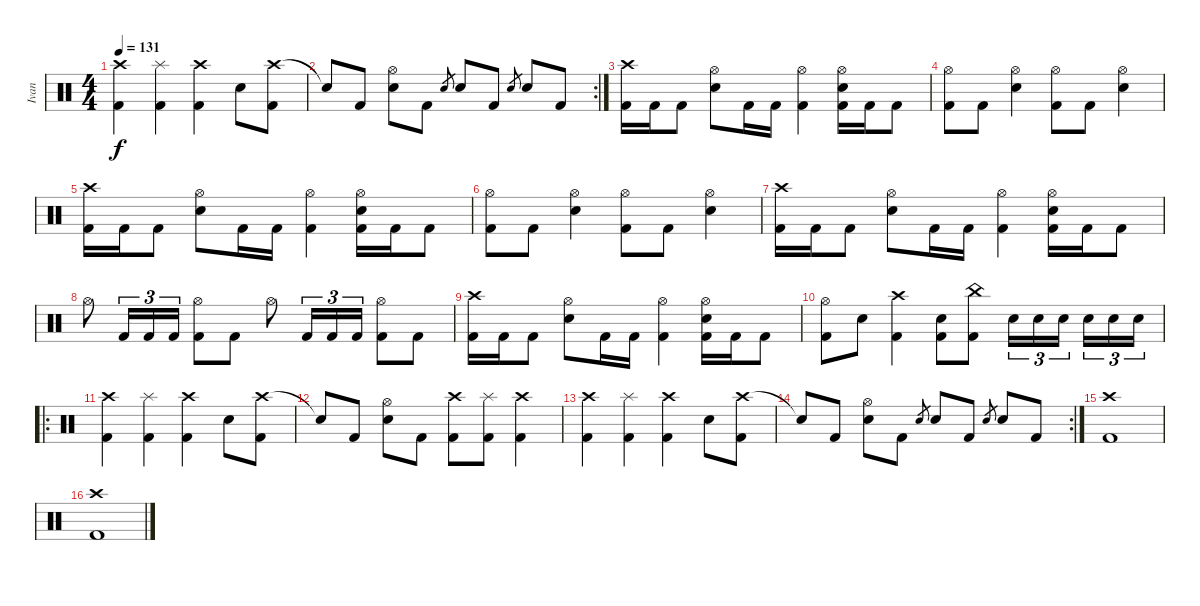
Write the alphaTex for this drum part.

\track ("Ivan" "Ivan") {instrument percussion}
\staff {score}
\articulation defaults
\ts (4 4)
\tempo 131
\clef neutral
\ks c
("Crash high (hit)" "Kick (hit) 2").4{dy f} ("Splash (hit)" "Kick (hit) 2").4 ("Crash high (hit)" "Kick (hit) 2").4 "Electric Snare (hit)".8 ("Crash high (hit)" "Kick (hit) 2").8 |
\rc 2 "Snare (hit)"{t}.8 "Kick (hit) 2".8
("Hi-Hat (open)" "Electric Snare (hit)").8 "Kick (hit) 2".8 "Electric Snare (hit)".8{gr} "Electric Snare (hit)".8 "Kick (hit) 2".8 "Electric Snare (hit)".8{gr} "Electric Snare (hit)".8 "Kick (hit) 2".8 |
("Crash high (hit)" "Kick (hit) 2").16 "Kick (hit) 2".16 "Kick (hit) 2".8 ("Hi-Hat (open)" "Electric Snare (hit)").8 "Kick (hit) 2".16 "Kick (hit) 2".16 ("Hi-Hat (open)" "Kick (hit) 2").4 ("Hi-Hat (open)" "Electric Snare (hit)" "Kick (hit) 2").16 "Kick (hit) 2".16 "Kick (hit) 2".8 |
("Hi-Hat (open)" "Kick (hit) 2").8 "Kick (hit) 2".8 ("Hi-Hat (open)" "Electric Snare (hit)").4 ("Hi-Hat (open)" "Kick (hit) 2").8 "Kick (hit) 2".8 ("Hi-Hat (open)" "Electric Snare (hit)").4 |
("Crash high (hit)" "Kick (hit) 2").16 "Kick (hit) 2".16 "Kick (hit) 2".8 ("Hi-Hat (open)" "Electric Snare (hit)").8 "Kick (hit) 2".16 "Kick (hit) 2".16 ("Hi-Hat (open)" "Kick (hit) 2").4 ("Hi-Hat (open)" "Electric Snare (hit)" "Kick (hit) 2").16 "Kick (hit) 2".16 "Kick (hit) 2".8 |
("Hi-Hat (open)" "Kick (hit) 2").8 "Kick (hit) 2".8 ("Hi-Hat (open)" "Electric Snare (hit)").4 ("Hi-Hat (open)" "Kick (hit) 2").8 "Kick (hit) 2".8 ("Hi-Hat (open)" "Electric Snare (hit)").4 |
("Crash high (hit)" "Kick (hit) 2").16 "Kick (hit) 2".16 "Kick (hit) 2".8 ("Hi-Hat (open)" "Electric Snare (hit)").8 "Kick (hit) 2".16 "Kick (hit) 2".16 ("Hi-Hat (open)" "Kick (hit) 2").4 ("Hi-Hat (open)" "Electric Snare (hit)" "Kick (hit) 2").16 "Kick (hit) 2".16 "Kick (hit) 2".8 |
"Hi-Hat (open)".8 "Kick (hit) 2".16{tu (3 2)} "Kick (hit) 2".16{tu (3 2)} "Kick (hit) 2".16{tu (3 2)} ("Hi-Hat (open)" "Kick (hit) 2").8 "Kick (hit) 2".8 "Hi-Hat (open)".8 "Kick (hit) 2".16{tu (3 2)} "Kick (hit) 2".16{tu (3 2)} "Kick (hit) 2".16{tu (3 2)} ("Hi-Hat (open)" "Kick (hit) 2").8 "Kick (hit) 2".8 |
("Crash high (hit)" "Kick (hit) 2").16 "Kick (hit) 2".16 "Kick (hit) 2".8 ("Hi-Hat (open)" "Electric Snare (hit)").8 "Kick (hit) 2".16 "Kick (hit) 2".16 ("Hi-Hat (open)" "Kick (hit) 2").4 ("Hi-Hat (open)" "Electric Snare (hit)" "Kick (hit) 2").16 "Kick (hit) 2".16 "Kick (hit) 2".8 |
("Hi-Hat (open)" "Kick (hit) 2").8 "Electric Snare (hit)".8 ("Crash high (hit)" "Kick (hit) 2").4 ("Electric Snare (hit)" "Kick (hit) 2").8 ("China (hit)" "Kick (hit) 2").8 "Electric Snare (hit)".16{tu (3 2)} "Electric Snare (hit)".16{tu (3 2)} "Electric Snare (hit)".16{tu (3 2)} "Electric Snare (hit)".16{tu (3 2)} "Electric Snare (hit)".16{tu (3 2)} "Electric Snare (hit)".16{tu (3 2)} |
\ro
("Crash high (hit)" "Kick (hit) 2").4 ("Splash (hit)" "Kick (hit) 2").4 ("Crash high (hit)" "Kick (hit) 2").4 "Electric Snare (hit)".8 ("Crash high (hit)" "Kick (hit) 2").8 |
"Snare (hit)"{t}.8 "Kick (hit) 2".8 ("Hi-Hat (open)" "Electric Snare (hit)").8 "Kick (hit) 2".8 ("Crash high (hit)" "Kick (hit) 2").8 ("Splash (hit)" "Kick (hit) 2").8 ("Crash high (hit)" "Kick (hit) 2").4 |
("Crash high (hit)" "Kick (hit) 2").4 ("Splash (hit)" "Kick (hit) 2").4 ("Crash high (hit)" "Kick (hit) 2").4 "Electric Snare (hit)".8 ("Crash high (hit)" "Kick (hit) 2").8 |
\rc 2 "Snare (hit)"{t}.8 "Kick (hit) 2".8
("Hi-Hat (open)" "Electric Snare (hit)").8 "Kick (hit) 2".8 "Electric Snare (hit)".8{gr} "Electric Snare (hit)".8 "Kick (hit) 2".8 "Electric Snare (hit)".8{gr} "Electric Snare (hit)".8 "Kick (hit) 2".8 |
("Crash high (hit)" "Kick (hit) 2").1 |
("Crash high (hit)" "Kick (hit) 2").1
